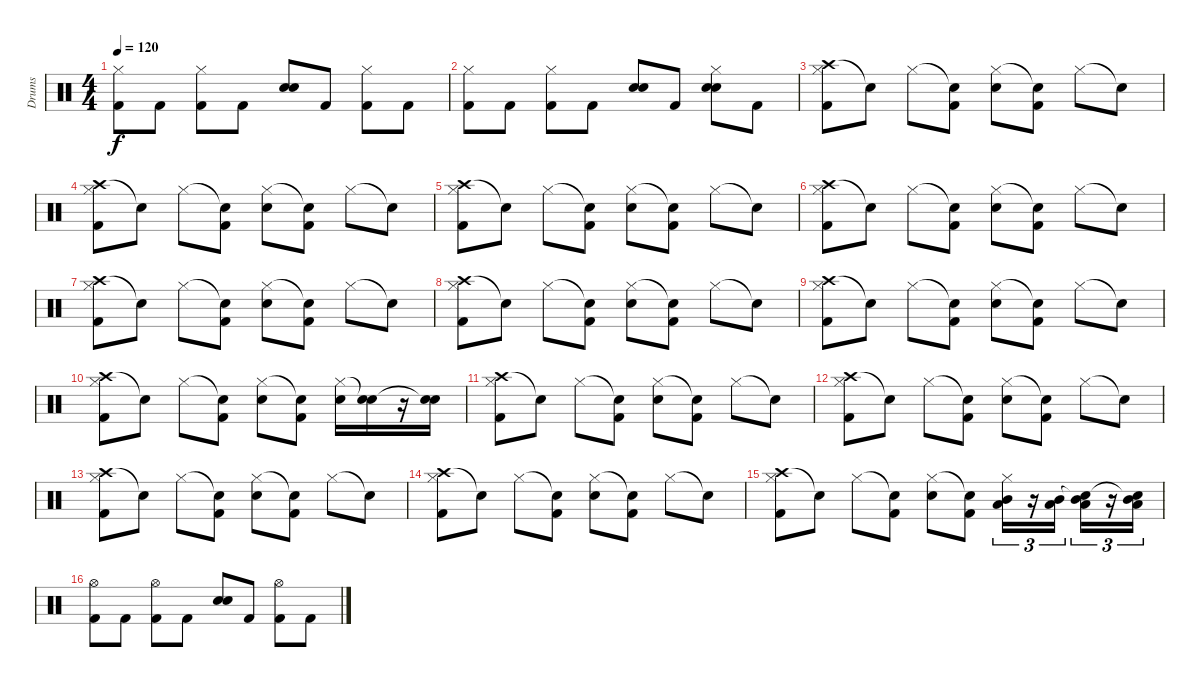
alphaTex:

\track ("Drums" "Drums") {instrument percussion}
\staff {score}
\articulation defaults
\ts (4 4)
\tempo 120
\clef neutral
\ks c
("Hi-Hat (closed)" "Kick (hit) 2").8{dy f} "Kick (hit) 2".8 ("Hi-Hat (closed)" "Kick (hit) 2").8 "Kick (hit) 2".8 ("Electric Snare (hit)" "Electric Snare (hit)").8 "Kick (hit) 2".8 ("Hi-Hat (closed)" "Kick (hit) 2").8 "Kick (hit) 2".8 |
("Hi-Hat (closed)" "Kick (hit) 2").8 "Kick (hit) 2".8 ("Hi-Hat (closed)" "Kick (hit) 2").8 "Kick (hit) 2".8 ("Electric Snare (hit)" "Electric Snare (hit)").8 "Kick (hit) 2".8 ("Hi-Hat (closed)" "Electric Snare (hit)" "Electric Snare (hit)").8 "Kick (hit) 2".8 |
("Crash high (hit)" "Hi-Hat (closed)" "Kick (hit) 2").8 "Snare (hit)"{t}.8 "Hi-Hat (closed)".8 ("Snare (hit)"{t} "Kick (hit) 2").8 ("Hi-Hat (closed)" "Electric Snare (hit)").8 ("Snare (hit)"{t} "Kick (hit) 2").8 "Hi-Hat (closed)".8 "Snare (hit)"{t}.8 |
("Crash high (hit)" "Hi-Hat (closed)" "Kick (hit) 2").8 "Snare (hit)"{t}.8 "Hi-Hat (closed)".8 ("Snare (hit)"{t} "Kick (hit) 2").8 ("Hi-Hat (closed)" "Electric Snare (hit)").8 ("Snare (hit)"{t} "Kick (hit) 2").8 "Hi-Hat (closed)".8 "Snare (hit)"{t}.8 |
("Crash high (hit)" "Hi-Hat (closed)" "Kick (hit) 2").8 "Snare (hit)"{t}.8 "Hi-Hat (closed)".8 ("Snare (hit)"{t} "Kick (hit) 2").8 ("Hi-Hat (closed)" "Electric Snare (hit)").8 ("Snare (hit)"{t} "Kick (hit) 2").8 "Hi-Hat (closed)".8 "Snare (hit)"{t}.8 |
("Crash high (hit)" "Hi-Hat (closed)" "Kick (hit) 2").8 "Snare (hit)"{t}.8 "Hi-Hat (closed)".8 ("Snare (hit)"{t} "Kick (hit) 2").8 ("Hi-Hat (closed)" "Electric Snare (hit)").8 ("Snare (hit)"{t} "Kick (hit) 2").8 "Hi-Hat (closed)".8 "Snare (hit)"{t}.8 |
("Crash high (hit)" "Hi-Hat (closed)" "Kick (hit) 2").8 "Snare (hit)"{t}.8 "Hi-Hat (closed)".8 ("Snare (hit)"{t} "Kick (hit) 2").8 ("Hi-Hat (closed)" "Electric Snare (hit)").8 ("Snare (hit)"{t} "Kick (hit) 2").8 "Hi-Hat (closed)".8 "Snare (hit)"{t}.8 |
("Crash high (hit)" "Hi-Hat (closed)" "Kick (hit) 2").8 "Snare (hit)"{t}.8 "Hi-Hat (closed)".8 ("Snare (hit)"{t} "Kick (hit) 2").8 ("Hi-Hat (closed)" "Electric Snare (hit)").8 ("Snare (hit)"{t} "Kick (hit) 2").8 "Hi-Hat (closed)".8 "Snare (hit)"{t}.8 |
("Crash high (hit)" "Hi-Hat (closed)" "Kick (hit) 2").8 "Snare (hit)"{t}.8 "Hi-Hat (closed)".8 ("Snare (hit)"{t} "Kick (hit) 2").8 ("Hi-Hat (closed)" "Electric Snare (hit)").8 ("Snare (hit)"{t} "Kick (hit) 2").8 "Hi-Hat (closed)".8 "Snare (hit)"{t}.8 |
("Crash high (hit)" "Hi-Hat (closed)" "Kick (hit) 2").8 "Snare (hit)"{t}.8 "Hi-Hat (closed)".8 ("Snare (hit)"{t} "Kick (hit) 2").8 ("Hi-Hat (closed)" "Electric Snare (hit)").8 ("Snare (hit)"{t} "Kick (hit) 2").8 ("Hi-Hat (closed)" "Electric Snare (hit)").16 ("Snare (hit)"{t} "Electric Snare (hit)").16 r.16 ("Snare (hit)"{t} "Electric Snare (hit)").16 |
("Crash high (hit)" "Hi-Hat (closed)" "Kick (hit) 2").8 "Snare (hit)"{t}.8 "Hi-Hat (closed)".8 ("Snare (hit)"{t} "Kick (hit) 2").8 ("Hi-Hat (closed)" "Electric Snare (hit)").8 ("Snare (hit)"{t} "Kick (hit) 2").8 "Hi-Hat (closed)".8 "Snare (hit)"{t}.8 |
("Crash high (hit)" "Hi-Hat (closed)" "Kick (hit) 2").8 "Snare (hit)"{t}.8 "Hi-Hat (closed)".8 ("Snare (hit)"{t} "Kick (hit) 2").8 ("Hi-Hat (closed)" "Electric Snare (hit)").8 ("Snare (hit)"{t} "Kick (hit) 2").8 "Hi-Hat (closed)".8 "Snare (hit)"{t}.8 |
("Crash high (hit)" "Hi-Hat (closed)" "Kick (hit) 2").8 "Snare (hit)"{t}.8 "Hi-Hat (closed)".8 ("Snare (hit)"{t} "Kick (hit) 2").8 ("Hi-Hat (closed)" "Electric Snare (hit)").8 ("Snare (hit)"{t} "Kick (hit) 2").8 "Hi-Hat (closed)".8 "Snare (hit)"{t}.8 |
("Crash high (hit)" "Hi-Hat (closed)" "Kick (hit) 2").8 "Snare (hit)"{t}.8 "Hi-Hat (closed)".8 ("Snare (hit)"{t} "Kick (hit) 2").8 ("Hi-Hat (closed)" "Electric Snare (hit)").8 ("Snare (hit)"{t} "Kick (hit) 2").8 "Hi-Hat (closed)".8 "Snare (hit)"{t}.8 |
("Crash high (hit)" "Hi-Hat (closed)" "Kick (hit) 2").8 "Snare (hit)"{t}.8 "Hi-Hat (closed)".8 ("Snare (hit)"{t} "Kick (hit) 2").8 ("Hi-Hat (closed)" "Electric Snare (hit)").8 ("Snare (hit)"{t} "Kick (hit) 2").8 ("Hi-Hat (closed)" "Mid Tom (hit)" "Low Tom (hit)").16{tu (3 2)} r.16{tu (3 2)} ("Mid Tom (hit)" "Low Tom (hit)").16{tu (3 2)} ("Snare (hit)"{t} "Mid Tom (hit)" "Low Tom (hit)").16{tu (3 2)} r.16{tu (3 2)} ("Snare (hit)"{t} "Mid Tom (hit)" "Low Tom (hit)").16{tu (3 2)} |
("Hi-Hat (open)" "Kick (hit) 2").8 "Kick (hit) 2".8 ("Hi-Hat (open)" "Kick (hit) 2").8 "Kick (hit) 2".8 ("Electric Snare (hit)" "Electric Snare (hit)").8 "Kick (hit) 2".8 ("Hi-Hat (open)" "Kick (hit) 2").8 "Kick (hit) 2".8
